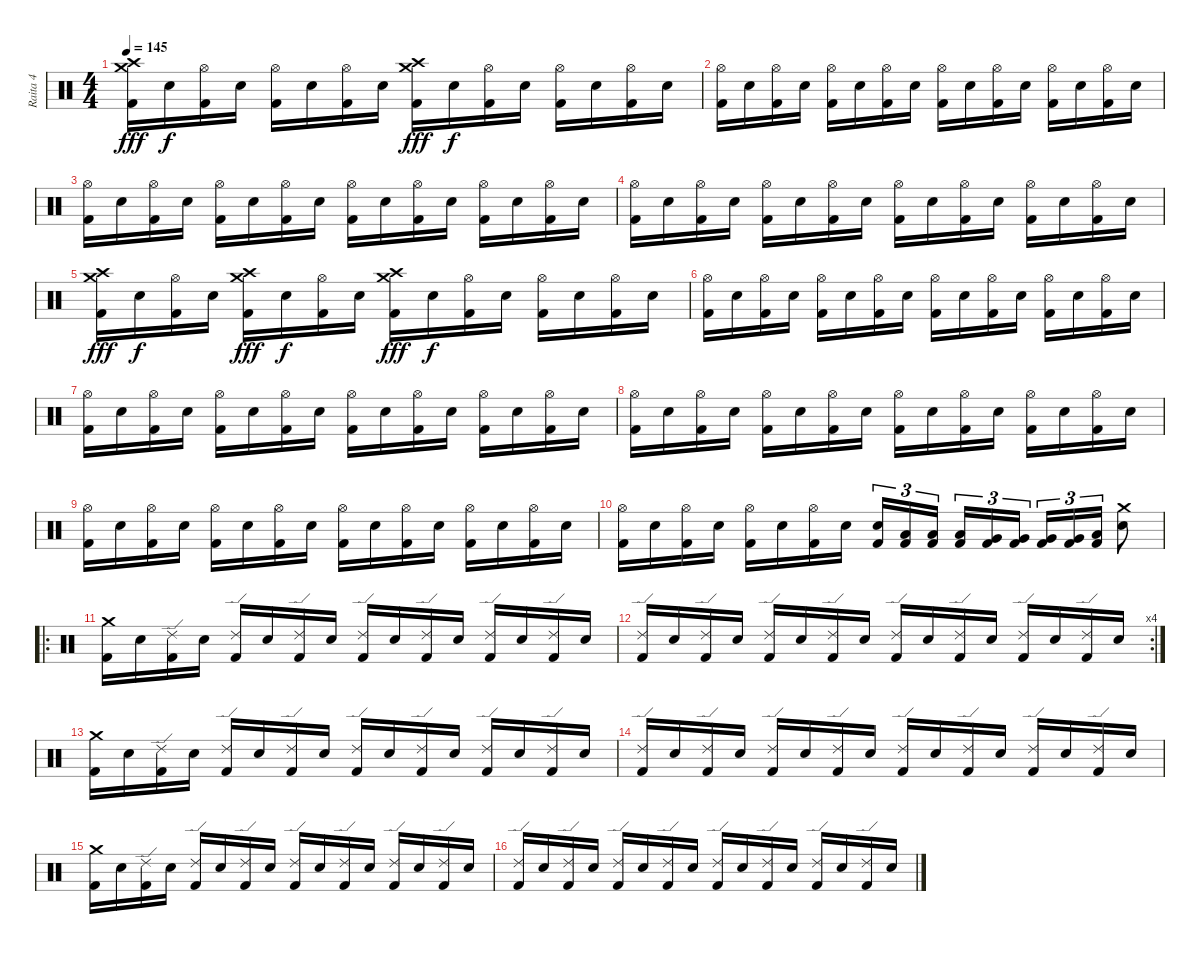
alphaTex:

\track ("Raita 4" "Raita 4") {instrument percussion}
\staff {score}
\articulation defaults
\ts (4 4)
\tempo 145
\clef neutral
\ks c
("Crash high (hit)" "Crash medium (hit)" "Kick (hit) 2").16{dy fff} "Electric Snare (hit)".16{dy f} ("Hi-Hat (open)" "Kick (hit) 2").16 "Electric Snare (hit)".16 ("Hi-Hat (open)" "Kick (hit) 2").16 "Electric Snare (hit)".16 ("Hi-Hat (open)" "Kick (hit) 2").16 "Electric Snare (hit)".16 ("Crash high (hit)" "Crash medium (hit)" "Kick (hit) 2").16{dy fff} "Electric Snare (hit)".16{dy f} ("Hi-Hat (open)" "Kick (hit) 2").16 "Electric Snare (hit)".16 ("Hi-Hat (open)" "Kick (hit) 2").16 "Electric Snare (hit)".16 ("Hi-Hat (open)" "Kick (hit) 2").16 "Electric Snare (hit)".16 |
("Hi-Hat (open)" "Kick (hit) 2").16 "Electric Snare (hit)".16 ("Hi-Hat (open)" "Kick (hit) 2").16 "Electric Snare (hit)".16 ("Hi-Hat (open)" "Kick (hit) 2").16 "Electric Snare (hit)".16 ("Hi-Hat (open)" "Kick (hit) 2").16 "Electric Snare (hit)".16 ("Hi-Hat (open)" "Kick (hit) 2").16 "Electric Snare (hit)".16 ("Hi-Hat (open)" "Kick (hit) 2").16 "Electric Snare (hit)".16 ("Hi-Hat (open)" "Kick (hit) 2").16 "Electric Snare (hit)".16 ("Hi-Hat (open)" "Kick (hit) 2").16 "Electric Snare (hit)".16 |
("Hi-Hat (open)" "Kick (hit) 2").16 "Electric Snare (hit)".16 ("Hi-Hat (open)" "Kick (hit) 2").16 "Electric Snare (hit)".16 ("Hi-Hat (open)" "Kick (hit) 2").16 "Electric Snare (hit)".16 ("Hi-Hat (open)" "Kick (hit) 2").16 "Electric Snare (hit)".16 ("Hi-Hat (open)" "Kick (hit) 2").16 "Electric Snare (hit)".16 ("Hi-Hat (open)" "Kick (hit) 2").16 "Electric Snare (hit)".16 ("Hi-Hat (open)" "Kick (hit) 2").16 "Electric Snare (hit)".16 ("Hi-Hat (open)" "Kick (hit) 2").16 "Electric Snare (hit)".16 |
("Hi-Hat (open)" "Kick (hit) 2").16 "Electric Snare (hit)".16 ("Hi-Hat (open)" "Kick (hit) 2").16 "Electric Snare (hit)".16 ("Hi-Hat (open)" "Kick (hit) 2").16 "Electric Snare (hit)".16 ("Hi-Hat (open)" "Kick (hit) 2").16 "Electric Snare (hit)".16 ("Hi-Hat (open)" "Kick (hit) 2").16 "Electric Snare (hit)".16 ("Hi-Hat (open)" "Kick (hit) 2").16 "Electric Snare (hit)".16 ("Hi-Hat (open)" "Kick (hit) 2").16 "Electric Snare (hit)".16 ("Hi-Hat (open)" "Kick (hit) 2").16 "Electric Snare (hit)".16 |
("Crash high (hit)" "Crash medium (hit)" "Kick (hit) 2").16{dy fff} "Electric Snare (hit)".16{dy f} ("Hi-Hat (open)" "Kick (hit) 2").16 "Electric Snare (hit)".16 ("Crash high (hit)" "Crash medium (hit)" "Kick (hit) 2").16{dy fff} "Electric Snare (hit)".16{dy f} ("Hi-Hat (open)" "Kick (hit) 2").16 "Electric Snare (hit)".16 ("Crash high (hit)" "Crash medium (hit)" "Kick (hit) 2").16{dy fff} "Electric Snare (hit)".16{dy f} ("Hi-Hat (open)" "Kick (hit) 2").16 "Electric Snare (hit)".16 ("Hi-Hat (open)" "Kick (hit) 2").16 "Electric Snare (hit)".16 ("Hi-Hat (open)" "Kick (hit) 2").16 "Electric Snare (hit)".16 |
("Hi-Hat (open)" "Kick (hit) 2").16 "Electric Snare (hit)".16 ("Hi-Hat (open)" "Kick (hit) 2").16 "Electric Snare (hit)".16 ("Hi-Hat (open)" "Kick (hit) 2").16 "Electric Snare (hit)".16 ("Hi-Hat (open)" "Kick (hit) 2").16 "Electric Snare (hit)".16 ("Hi-Hat (open)" "Kick (hit) 2").16 "Electric Snare (hit)".16 ("Hi-Hat (open)" "Kick (hit) 2").16 "Electric Snare (hit)".16 ("Hi-Hat (open)" "Kick (hit) 2").16 "Electric Snare (hit)".16 ("Hi-Hat (open)" "Kick (hit) 2").16 "Electric Snare (hit)".16 |
("Hi-Hat (open)" "Kick (hit) 2").16 "Electric Snare (hit)".16 ("Hi-Hat (open)" "Kick (hit) 2").16 "Electric Snare (hit)".16 ("Hi-Hat (open)" "Kick (hit) 2").16 "Electric Snare (hit)".16 ("Hi-Hat (open)" "Kick (hit) 2").16 "Electric Snare (hit)".16 ("Hi-Hat (open)" "Kick (hit) 2").16 "Electric Snare (hit)".16 ("Hi-Hat (open)" "Kick (hit) 2").16 "Electric Snare (hit)".16 ("Hi-Hat (open)" "Kick (hit) 2").16 "Electric Snare (hit)".16 ("Hi-Hat (open)" "Kick (hit) 2").16 "Electric Snare (hit)".16 |
("Hi-Hat (open)" "Kick (hit) 2").16 "Electric Snare (hit)".16 ("Hi-Hat (open)" "Kick (hit) 2").16 "Electric Snare (hit)".16 ("Hi-Hat (open)" "Kick (hit) 2").16 "Electric Snare (hit)".16 ("Hi-Hat (open)" "Kick (hit) 2").16 "Electric Snare (hit)".16 ("Hi-Hat (open)" "Kick (hit) 2").16 "Electric Snare (hit)".16 ("Hi-Hat (open)" "Kick (hit) 2").16 "Electric Snare (hit)".16 ("Hi-Hat (open)" "Kick (hit) 2").16 "Electric Snare (hit)".16 ("Hi-Hat (open)" "Kick (hit) 2").16 "Electric Snare (hit)".16 |
("Hi-Hat (open)" "Kick (hit) 2").16 "Electric Snare (hit)".16 ("Hi-Hat (open)" "Kick (hit) 2").16 "Electric Snare (hit)".16 ("Hi-Hat (open)" "Kick (hit) 2").16 "Electric Snare (hit)".16 ("Hi-Hat (open)" "Kick (hit) 2").16 "Electric Snare (hit)".16 ("Hi-Hat (open)" "Kick (hit) 2").16 "Electric Snare (hit)".16 ("Hi-Hat (open)" "Kick (hit) 2").16 "Electric Snare (hit)".16 ("Hi-Hat (open)" "Kick (hit) 2").16 "Electric Snare (hit)".16 ("Hi-Hat (open)" "Kick (hit) 2").16 "Electric Snare (hit)".16 |
("Hi-Hat (open)" "Kick (hit) 2").16 "Electric Snare (hit)".16 ("Hi-Hat (open)" "Kick (hit) 2").16 "Electric Snare (hit)".16 ("Hi-Hat (open)" "Kick (hit) 2").16 "Electric Snare (hit)".16 ("Hi-Hat (open)" "Kick (hit) 2").16 "Electric Snare (hit)".16 ("Electric Snare (hit)" "Kick (hit) 2").16{tu (3 2)} ("Low Tom (hit)" "Kick (hit) 2").16{tu (3 2)} ("Low Tom (hit)" "Kick (hit) 2").16{tu (3 2)} ("Low Tom (hit)" "Kick (hit) 2").16{tu (3 2)} ("Very Low Tom (hit)" "Kick (hit) 2").16{tu (3 2)} ("Very Low Tom (hit)" "Kick (hit) 2").16{tu (3 2)} ("Very Low Tom (hit)" "Kick (hit) 2").16{tu (3 2)} ("Very Low Tom (hit)" "Kick (hit) 2").16{tu (3 2)} ("Low Floor Tom (hit)" "Kick (hit) 2").16{tu (3 2)} ("Crash medium (hit)" "Electric Snare (hit)").8 |
\ro
("Crash medium (hit)" "Kick (hit) 2").16 "Electric Snare (hit)".16 ("Ride (edge) 2" "Kick (hit) 2").16 "Electric Snare (hit)".16 ("Ride (edge) 2" "Kick (hit) 2").16 "Electric Snare (hit)".16 ("Ride (edge) 2" "Kick (hit) 2").16 "Electric Snare (hit)".16 ("Ride (edge) 2" "Kick (hit) 2").16 "Electric Snare (hit)".16 ("Ride (edge) 2" "Kick (hit) 2").16 "Electric Snare (hit)".16 ("Ride (edge) 2" "Kick (hit) 2").16 "Electric Snare (hit)".16 ("Ride (edge) 2" "Kick (hit) 2").16 "Electric Snare (hit)".16 |
\rc 4
("Ride (edge) 2" "Kick (hit) 2").16 "Electric Snare (hit)".16 ("Ride (edge) 2" "Kick (hit) 2").16 "Electric Snare (hit)".16 ("Ride (edge) 2" "Kick (hit) 2").16 "Electric Snare (hit)".16 ("Ride (edge) 2" "Kick (hit) 2").16 "Electric Snare (hit)".16 ("Ride (edge) 2" "Kick (hit) 2").16 "Electric Snare (hit)".16 ("Ride (edge) 2" "Kick (hit) 2").16 "Electric Snare (hit)".16 ("Ride (edge) 2" "Kick (hit) 2").16 "Electric Snare (hit)".16 ("Ride (edge) 2" "Kick (hit) 2").16 "Electric Snare (hit)".16 |
("Crash medium (hit)" "Kick (hit) 2").16 "Electric Snare (hit)".16 ("Ride (edge) 2" "Kick (hit) 2").16 "Electric Snare (hit)".16 ("Ride (edge) 2" "Kick (hit) 2").16 "Electric Snare (hit)".16 ("Ride (edge) 2" "Kick (hit) 2").16 "Electric Snare (hit)".16 ("Ride (edge) 2" "Kick (hit) 2").16 "Electric Snare (hit)".16 ("Ride (edge) 2" "Kick (hit) 2").16 "Electric Snare (hit)".16 ("Ride (edge) 2" "Kick (hit) 2").16 "Electric Snare (hit)".16 ("Ride (edge) 2" "Kick (hit) 2").16 "Electric Snare (hit)".16 |
("Ride (edge) 2" "Kick (hit) 2").16 "Electric Snare (hit)".16 ("Ride (edge) 2" "Kick (hit) 2").16 "Electric Snare (hit)".16 ("Ride (edge) 2" "Kick (hit) 2").16 "Electric Snare (hit)".16 ("Ride (edge) 2" "Kick (hit) 2").16 "Electric Snare (hit)".16 ("Ride (edge) 2" "Kick (hit) 2").16 "Electric Snare (hit)".16 ("Ride (edge) 2" "Kick (hit) 2").16 "Electric Snare (hit)".16 ("Ride (edge) 2" "Kick (hit) 2").16 "Electric Snare (hit)".16 ("Ride (edge) 2" "Kick (hit) 2").16 "Electric Snare (hit)".16 |
("Crash medium (hit)" "Kick (hit) 2").16 "Electric Snare (hit)".16 ("Ride (edge) 2" "Kick (hit) 2").16 "Electric Snare (hit)".16 ("Ride (edge) 2" "Kick (hit) 2").16 "Electric Snare (hit)".16 ("Ride (edge) 2" "Kick (hit) 2").16 "Electric Snare (hit)".16 ("Ride (edge) 2" "Kick (hit) 2").16 "Electric Snare (hit)".16 ("Ride (edge) 2" "Kick (hit) 2").16 "Electric Snare (hit)".16 ("Ride (edge) 2" "Kick (hit) 2").16 "Electric Snare (hit)".16 ("Ride (edge) 2" "Kick (hit) 2").16 "Electric Snare (hit)".16 |
("Ride (edge) 2" "Kick (hit) 2").16 "Electric Snare (hit)".16 ("Ride (edge) 2" "Kick (hit) 2").16 "Electric Snare (hit)".16 ("Ride (edge) 2" "Kick (hit) 2").16 "Electric Snare (hit)".16 ("Ride (edge) 2" "Kick (hit) 2").16 "Electric Snare (hit)".16 ("Ride (edge) 2" "Kick (hit) 2").16 "Electric Snare (hit)".16 ("Ride (edge) 2" "Kick (hit) 2").16 "Electric Snare (hit)".16 ("Ride (edge) 2" "Kick (hit) 2").16 "Electric Snare (hit)".16 ("Ride (edge) 2" "Kick (hit) 2").16 "Electric Snare (hit)".16
